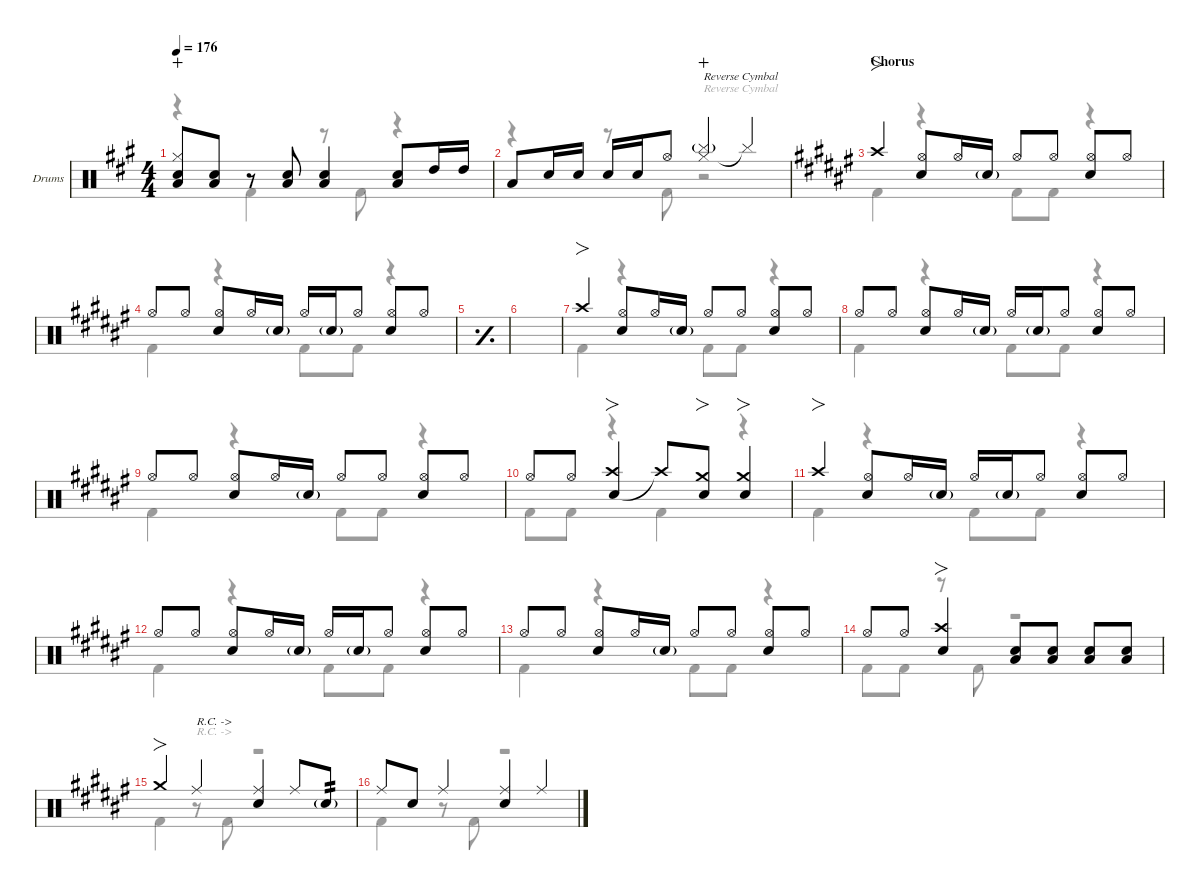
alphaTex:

\defaultSystemsLayout 4
\hideDynamics
\bracketExtendMode nobrackets
\firstSystemTrackNameOrientation horizontal
\track ("Drums" "Drums") {defaultSystemsLayout 4 instrument percussion}
\staff {score}
\articulation defaults
\voice
\ts (4 4)
\tempo 176
\clef neutral
\ks a
("Hi-Hat (closed)"{acc forcenatural} "Snare (hit) 2"{acc forcenatural} "Low Tom (hit)"{acc forcenatural}).8{dy f wahc beam Up} ("Low Tom (hit)"{acc forcenatural} "Snare (hit) 2"{acc forcenatural}).8{beam Up} r.8{beam Up} ("Snare (hit) 2"{acc forcenatural} "Low Tom (hit)"{acc forcenatural}).8{beam Up} ("Snare (hit) 2"{acc forcenatural} "Low Tom (hit)"{acc forcenatural}).4{beam Up} ("Low Tom (hit)"{acc forcenatural} "Snare (hit) 2"{acc forcenatural}).8{beam Up} "High Tom (hit)"{acc forcenatural}.16{beam Up} "High Tom (hit)"{acc forcenatural}.16{beam Up} |
"Low Tom (hit)"{acc forcenatural}.8{beam Up} "Snare (hit) 2"{acc forcenatural}.16{beam Up} "Snare (hit) 2"{acc forcenatural}.16{dy mf beam Up beam split} "Snare (hit) 2"{acc forcenatural}.16{dy f beam Up} "Snare (hit) 2"{acc forcenatural}.16{dy mf beam Up} "Hi-Hat (open)"{acc forcenatural}.8{dy f beam Up} ("Hi-Hat (closed)"{acc forcenatural} "Cymbal (hit)"{g acc forcenatural}).4{txt "Reverse Cymbal" dy mp wahc beam Up} "Cymbal (hit)"{t acc forcenatural}.4{beam Up} |
\section ("" "Chorus")
\ks f# "Crash high (hit)"{acc forcenatural}.4{fo dy f beam Up}
("Hi-Hat (open)"{acc forcenatural} "Snare (hit) 2"{acc forcenatural}).8{beam Up} "Hi-Hat (open)"{acc forcenatural}.16{dy mf beam Up} "Snare (hit) 2"{g acc forcenatural}.16{beam Up} "Hi-Hat (open)"{acc forcenatural}.8{dy f beam Up} "Hi-Hat (open)"{acc forcenatural}.8{dy mf beam Up} ("Hi-Hat (open)"{acc forcenatural} "Snare (hit) 2"{acc forcenatural}).8{dy f beam Up} "Hi-Hat (open)"{acc forcenatural}.8{dy mf beam Up} |
"Hi-Hat (open)"{acc forcenatural}.8{dy f beam Up} "Hi-Hat (open)"{acc forcenatural}.8{dy mf beam Up beam split} ("Hi-Hat (open)"{acc forcenatural} "Snare (hit) 2"{acc forcenatural}).8{dy f beam Up} "Hi-Hat (open)"{acc forcenatural}.16{dy mf beam Up} "Snare (hit) 2"{g acc forcenatural}.16{beam Up} "Hi-Hat (open)"{acc forcenatural}.16{dy f beam Up} "Snare (hit) 2"{g acc forcenatural}.16{dy mf beam Up} "Hi-Hat (open)"{acc forcenatural}.8{beam Up beam split} ("Hi-Hat (open)"{acc forcenatural} "Snare (hit) 2"{acc forcenatural}).8{dy f beam Up} "Hi-Hat (open)"{acc forcenatural}.8{dy mf beam Up} |
\simile simple
|
|
\simile none "Crash high (hit)"{acc forcenatural}.4{fo dy f beam Up}
("Hi-Hat (open)"{acc forcenatural} "Snare (hit) 2"{acc forcenatural}).8{beam Up} "Hi-Hat (open)"{acc forcenatural}.16{dy mf beam Up} "Snare (hit) 2"{g acc forcenatural}.16{beam Up} "Hi-Hat (open)"{acc forcenatural}.8{dy f beam Up} "Hi-Hat (open)"{acc forcenatural}.8{dy mf beam Up} ("Hi-Hat (open)"{acc forcenatural} "Snare (hit) 2"{acc forcenatural}).8{dy f beam Up} "Hi-Hat (open)"{acc forcenatural}.8{dy mf beam Up} |
"Hi-Hat (open)"{acc forcenatural}.8{dy f beam Up} "Hi-Hat (open)"{acc forcenatural}.8{dy mf beam Up beam split} ("Hi-Hat (open)"{acc forcenatural} "Snare (hit) 2"{acc forcenatural}).8{dy f beam Up} "Hi-Hat (open)"{acc forcenatural}.16{dy mf beam Up} "Snare (hit) 2"{g acc forcenatural}.16{beam Up} "Hi-Hat (open)"{acc forcenatural}.16{dy f beam Up} "Snare (hit) 2"{g acc forcenatural}.16{dy mf beam Up} "Hi-Hat (open)"{acc forcenatural}.8{beam Up beam split} ("Hi-Hat (open)"{acc forcenatural} "Snare (hit) 2"{acc forcenatural}).8{dy f beam Up} "Hi-Hat (open)"{acc forcenatural}.8{dy mf beam Up} |
"Hi-Hat (open)"{acc forcenatural}.8{dy f beam Up} "Hi-Hat (open)"{acc forcenatural}.8{dy mf beam Up beam split} ("Hi-Hat (open)"{acc forcenatural} "Snare (hit) 2"{acc forcenatural}).8{dy f beam Up} "Hi-Hat (open)"{acc forcenatural}.16{dy mf beam Up} "Snare (hit) 2"{g acc forcenatural}.16{beam Up} "Hi-Hat (open)"{acc forcenatural}.8{dy f beam Up} "Hi-Hat (open)"{acc forcenatural}.8{dy mf beam Up} ("Hi-Hat (open)"{acc forcenatural} "Snare (hit) 2"{acc forcenatural}).8{dy f beam Up} "Hi-Hat (open)"{acc forcenatural}.8{dy mf beam Up} |
"Hi-Hat (open)"{acc forcenatural}.8{dy f beam Up} "Hi-Hat (open)"{acc forcenatural}.8{dy mf beam Up} ("Snare (hit) 2"{acc forcenatural} "Crash high (hit)"{acc forcenatural}).4{fo dy f beam Up} "Crash high (hit)"{t acc forcenatural}.8{beam Up} ("Snare (hit) 2"{acc forcenatural} "Crash medium (hit)"{acc forcenatural}).8{fo beam Up} ("Snare (hit) 2"{acc forcenatural} "Crash medium (hit)"{acc forcenatural}).4{fo beam Up} |
"Crash high (hit)"{acc forcenatural}.4{fo beam Up} ("Hi-Hat (open)"{acc forcenatural} "Snare (hit) 2"{acc forcenatural}).8{beam Up} "Hi-Hat (open)"{acc forcenatural}.16{dy mf beam Up} "Snare (hit) 2"{g acc forcenatural}.16{beam Up} "Hi-Hat (open)"{acc forcenatural}.16{dy f beam Up} "Snare (hit) 2"{g acc forcenatural}.16{dy mf beam Up} "Hi-Hat (open)"{acc forcenatural}.8{beam Up beam split} ("Hi-Hat (open)"{acc forcenatural} "Snare (hit) 2"{acc forcenatural}).8{dy f beam Up} "Hi-Hat (open)"{acc forcenatural}.8{dy mf beam Up} |
"Hi-Hat (open)"{acc forcenatural}.8{dy f beam Up} "Hi-Hat (open)"{acc forcenatural}.8{dy mf beam Up beam split} ("Hi-Hat (open)"{acc forcenatural} "Snare (hit) 2"{acc forcenatural}).8{dy f beam Up} "Hi-Hat (open)"{acc forcenatural}.16{dy mf beam Up} "Snare (hit) 2"{g acc forcenatural}.16{beam Up} "Hi-Hat (open)"{acc forcenatural}.16{dy f beam Up} "Snare (hit) 2"{g acc forcenatural}.16{dy mf beam Up} "Hi-Hat (open)"{acc forcenatural}.8{beam Up beam split} ("Hi-Hat (open)"{acc forcenatural} "Snare (hit) 2"{acc forcenatural}).8{dy f beam Up} "Hi-Hat (open)"{acc forcenatural}.8{dy mf beam Up} |
"Hi-Hat (open)"{acc forcenatural}.8{dy f beam Up} "Hi-Hat (open)"{acc forcenatural}.8{dy mf beam Up beam split} ("Hi-Hat (open)"{acc forcenatural} "Snare (hit) 2"{acc forcenatural}).8{dy f beam Up} "Hi-Hat (open)"{acc forcenatural}.16{dy mf beam Up} "Snare (hit) 2"{g acc forcenatural}.16{beam Up} "Hi-Hat (open)"{acc forcenatural}.8{dy f beam Up} "Hi-Hat (open)"{acc forcenatural}.8{dy mf beam Up} ("Hi-Hat (open)"{acc forcenatural} "Snare (hit) 2"{acc forcenatural}).8{dy f beam Up} "Hi-Hat (open)"{acc forcenatural}.8{dy mf beam Up} |
"Hi-Hat (open)"{acc forcenatural}.8{dy f beam Up} "Hi-Hat (open)"{acc forcenatural}.8{dy mf beam Up beam split} ("Crash high (hit)"{acc forcenatural} "Snare (hit) 2"{acc forcenatural}).4{fo dy f beam Up} ("Low Tom (hit)"{acc forcenatural} "Snare (hit) 2"{acc forcenatural}).8{beam Up} ("Low Tom (hit)"{acc forcenatural} "Snare (hit) 2"{acc forcenatural}).8{beam Up} ("Low Tom (hit)"{acc forcenatural} "Snare (hit) 2"{acc forcenatural}).8{beam Up} ("Low Tom (hit)"{acc forcenatural} "Snare (hit) 2"{acc forcenatural}).8{beam Up} |
"Crash medium (hit)"{acc forcenatural}.4{fo beam Up} "Ride (middle)"{acc forcenatural}.4{txt "R.C. ->" beam Up} ("Ride (middle)"{acc forcenatural} "Snare (hit) 2"{acc forcenatural}).4{beam Up} "Ride (middle)"{acc forcenatural}.8{beam Up} "Snare (hit) 2"{g acc forcenatural}.8{tp 2 dy mf beam Up} |
"Ride (middle)"{acc forcenatural}.8{dy f beam Up} "Snare (hit) 2"{acc forcenatural}.8{beam Up} "Ride (middle)"{acc forcenatural}.4{beam Up} ("Ride (middle)"{acc forcenatural} "Snare (hit) 2"{acc forcenatural}).4{beam Up} "Ride (middle)"{acc forcenatural}.4{beam Up}
\voice
\clef neutral
\ottava regular
\simile none
\ks a
r.4{dy f beam Down} "Kick (hit) 2"{acc forcenatural}.4{beam Down} r.8{beam Down} "Kick (hit) 2"{acc forcenatural}.8{beam Down} r.4{beam Down} |
r.4{beam Down} r.8{beam Down} "Kick (hit) 2"{acc forcenatural}.8{beam Down} r.2{txt "\nReverse Cymbal" beam Down} |
\ks f# "Kick (hit) 2"{acc forcenatural}.4{beam Down}
r.4{beam Down} "Kick (hit) 2"{acc forcenatural}.8{beam Down} "Kick (hit) 2"{acc forcenatural}.8{beam Down} r.4{beam Down} |
"Kick (hit) 2"{acc forcenatural}.4{beam Down} r.4{beam Down} "Kick (hit) 2"{acc forcenatural}.8{beam Down} "Kick (hit) 2"{acc forcenatural}.8{beam Down} r.4{beam Down} |
\simile simple
|
|
\simile none "Kick (hit) 2"{acc forcenatural}.4{beam Down}
r.4{beam Down} "Kick (hit) 2"{acc forcenatural}.8{beam Down} "Kick (hit) 2"{acc forcenatural}.8{beam Down} r.4{beam Down} |
"Kick (hit) 2"{acc forcenatural}.4{beam Down} r.4{beam Down} "Kick (hit) 2"{acc forcenatural}.8{beam Down} "Kick (hit) 2"{acc forcenatural}.8{beam Down} r.4{beam Down} |
"Kick (hit) 2"{acc forcenatural}.4{beam Down} r.4{beam Down} "Kick (hit) 2"{acc forcenatural}.8{beam Down} "Kick (hit) 2"{acc forcenatural}.8{beam Down} r.4{beam Down} |
"Kick (hit) 2"{acc forcenatural}.8{beam Down} "Kick (hit) 2"{acc forcenatural}.8{beam Down} r.4{beam Down} "Kick (hit) 2"{acc forcenatural}.4{beam Down} r.4{beam Down} |
"Kick (hit) 2"{acc forcenatural}.4{beam Down} r.4{beam Down} "Kick (hit) 2"{acc forcenatural}.8{beam Down} "Kick (hit) 2"{acc forcenatural}.8{beam Down} r.4{beam Down} |
"Kick (hit) 2"{acc forcenatural}.4{beam Down} r.4{beam Down} "Kick (hit) 2"{acc forcenatural}.8{beam Down} "Kick (hit) 2"{acc forcenatural}.8{beam Down} r.4{beam Down} |
"Kick (hit) 2"{acc forcenatural}.4{beam Down} r.4{beam Down} "Kick (hit) 2"{acc forcenatural}.8{beam Down} "Kick (hit) 2"{acc forcenatural}.8{beam Down} r.4{beam Down} |
"Kick (hit) 2"{acc forcenatural}.8{beam Down} "Kick (hit) 2"{acc forcenatural}.8{beam Down} r.8{beam Down} "Kick (hit) 2"{acc forcenatural}.8{beam Down} r.2{beam Down} |
"Kick (hit) 2"{acc forcenatural}.4{beam Down} r.8{txt "R.C. ->" beam Down} "Kick (hit) 2"{acc forcenatural}.8{beam Down} r.2{beam Down} |
"Kick (hit) 2"{acc forcenatural}.4{beam Down} r.8{beam Down} "Kick (hit) 2"{acc forcenatural}.8{beam Down} r.2{beam Down}
